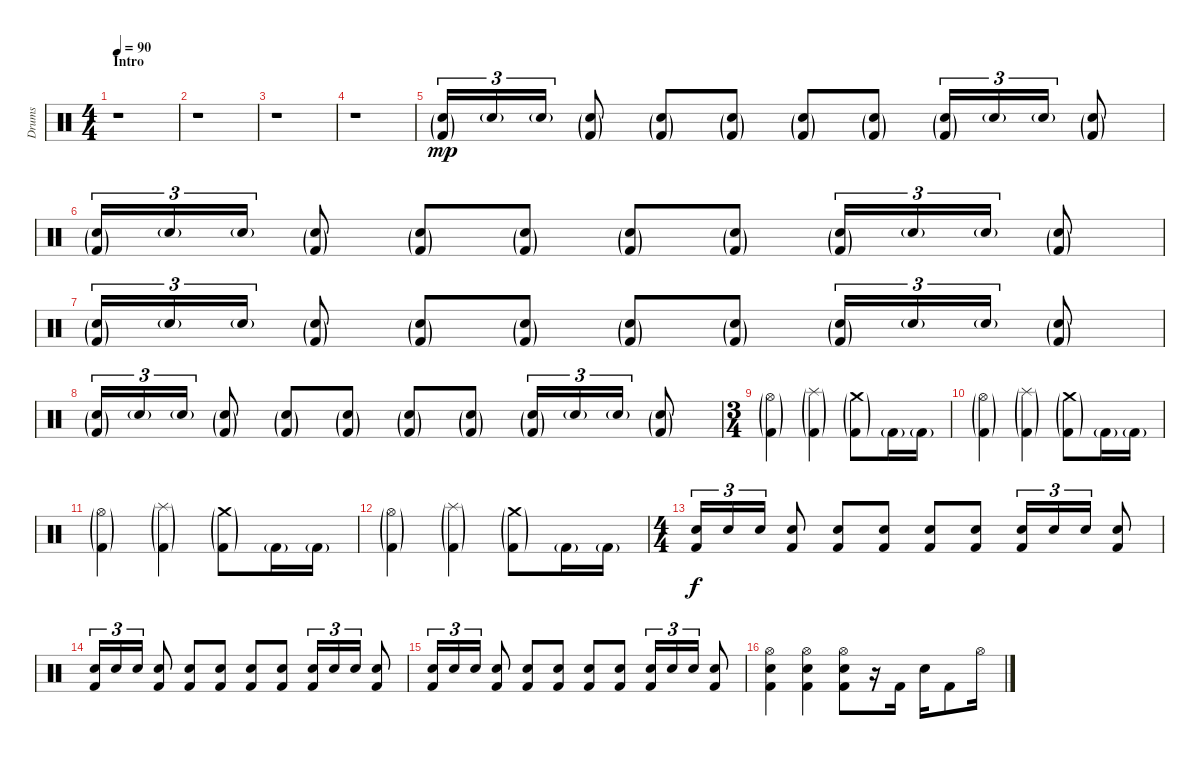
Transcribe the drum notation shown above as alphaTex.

\track ("Drums" "Drums") {instrument percussion}
\staff {score}
\articulation defaults
\ts (4 4)
\section ("" "Intro")
\tempo 90
\clef neutral
\ks c
r.1{dy mp} |
r.1 |
r.1 |
r.1 |
("Snare (hit) 2"{g} "Kick (hit) 2"{g}).16{tu (3 2)} "Snare (hit) 2"{g}.16{tu (3 2)} "Snare (hit) 2"{g}.16{tu (3 2)} ("Snare (hit) 2"{g} "Kick (hit) 2"{g}).8 ("Snare (hit) 2"{g} "Kick (hit) 2"{g}).8 ("Snare (hit) 2"{g} "Kick (hit) 2"{g}).8 ("Snare (hit) 2"{g} "Kick (hit) 2"{g}).8 ("Snare (hit) 2"{g} "Kick (hit) 2"{g}).8 ("Snare (hit) 2"{g} "Kick (hit) 2"{g}).16{tu (3 2)} "Snare (hit) 2"{g}.16{tu (3 2)} "Snare (hit) 2"{g}.16{tu (3 2)} ("Snare (hit) 2"{g} "Kick (hit) 2"{g}).8 |
("Snare (hit) 2"{g} "Kick (hit) 2"{g}).16{tu (3 2)} "Snare (hit) 2"{g}.16{tu (3 2)} "Snare (hit) 2"{g}.16{tu (3 2)} ("Snare (hit) 2"{g} "Kick (hit) 2"{g}).8 ("Snare (hit) 2"{g} "Kick (hit) 2"{g}).8 ("Snare (hit) 2"{g} "Kick (hit) 2"{g}).8 ("Snare (hit) 2"{g} "Kick (hit) 2"{g}).8 ("Snare (hit) 2"{g} "Kick (hit) 2"{g}).8 ("Snare (hit) 2"{g} "Kick (hit) 2"{g}).16{tu (3 2)} "Snare (hit) 2"{g}.16{tu (3 2)} "Snare (hit) 2"{g}.16{tu (3 2)} ("Snare (hit) 2"{g} "Kick (hit) 2"{g}).8 |
("Snare (hit) 2"{g} "Kick (hit) 2"{g}).16{tu (3 2)} "Snare (hit) 2"{g}.16{tu (3 2)} "Snare (hit) 2"{g}.16{tu (3 2)} ("Snare (hit) 2"{g} "Kick (hit) 2"{g}).8 ("Snare (hit) 2"{g} "Kick (hit) 2"{g}).8 ("Snare (hit) 2"{g} "Kick (hit) 2"{g}).8 ("Snare (hit) 2"{g} "Kick (hit) 2"{g}).8 ("Snare (hit) 2"{g} "Kick (hit) 2"{g}).8 ("Snare (hit) 2"{g} "Kick (hit) 2"{g}).16{tu (3 2)} "Snare (hit) 2"{g}.16{tu (3 2)} "Snare (hit) 2"{g}.16{tu (3 2)} ("Snare (hit) 2"{g} "Kick (hit) 2"{g}).8 |
("Snare (hit) 2"{g} "Kick (hit) 2"{g}).16{tu (3 2)} "Snare (hit) 2"{g}.16{tu (3 2)} "Snare (hit) 2"{g}.16{tu (3 2)} ("Snare (hit) 2"{g} "Kick (hit) 2"{g}).8 ("Snare (hit) 2"{g} "Kick (hit) 2"{g}).8 ("Snare (hit) 2"{g} "Kick (hit) 2"{g}).8 ("Snare (hit) 2"{g} "Kick (hit) 2"{g}).8 ("Snare (hit) 2"{g} "Kick (hit) 2"{g}).8 ("Snare (hit) 2"{g} "Kick (hit) 2"{g}).16{tu (3 2)} "Snare (hit) 2"{g}.16{tu (3 2)} "Snare (hit) 2"{g}.16{tu (3 2)} ("Snare (hit) 2"{g} "Kick (hit) 2"{g}).8 |
\ts (3 4)
("Hi-Hat (open)"{g} "Kick (hit) 2"{g}).4 ("Splash (hit)"{g} "Kick (hit) 2"{g}).4 ("Crash medium (hit)"{g} "Kick (hit) 2"{g}).8 "Kick (hit) 2"{g}.16 "Kick (hit) 2"{g}.16 |
("Hi-Hat (open)"{g} "Kick (hit) 2"{g}).4 ("Splash (hit)"{g} "Kick (hit) 2"{g}).4 ("Crash medium (hit)"{g} "Kick (hit) 2"{g}).8 "Kick (hit) 2"{g}.16 "Kick (hit) 2"{g}.16 |
("Hi-Hat (open)"{g} "Kick (hit) 2"{g}).4 ("Splash (hit)"{g} "Kick (hit) 2"{g}).4 ("Crash medium (hit)"{g} "Kick (hit) 2"{g}).8 "Kick (hit) 2"{g}.16 "Kick (hit) 2"{g}.16 |
("Hi-Hat (open)"{g} "Kick (hit) 2"{g}).4 ("Splash (hit)"{g} "Kick (hit) 2"{g}).4 ("Crash medium (hit)"{g} "Kick (hit) 2"{g}).8 "Kick (hit) 2"{g}.16 "Kick (hit) 2"{g}.16 |
\ts (4 4)
("Snare (hit) 2" "Kick (hit) 2").16{tu (3 2) dy f} "Snare (hit) 2".16{tu (3 2)} "Snare (hit) 2".16{tu (3 2)} ("Snare (hit) 2" "Kick (hit) 2").8 ("Snare (hit) 2" "Kick (hit) 2").8 ("Snare (hit) 2" "Kick (hit) 2").8 ("Snare (hit) 2" "Kick (hit) 2").8 ("Snare (hit) 2" "Kick (hit) 2").8 ("Snare (hit) 2" "Kick (hit) 2").16{tu (3 2)} "Snare (hit) 2".16{tu (3 2)} "Snare (hit) 2".16{tu (3 2)} ("Snare (hit) 2" "Kick (hit) 2").8 |
("Snare (hit) 2" "Kick (hit) 2").16{tu (3 2)} "Snare (hit) 2".16{tu (3 2)} "Snare (hit) 2".16{tu (3 2)} ("Snare (hit) 2" "Kick (hit) 2").8 ("Snare (hit) 2" "Kick (hit) 2").8 ("Snare (hit) 2" "Kick (hit) 2").8 ("Snare (hit) 2" "Kick (hit) 2").8 ("Snare (hit) 2" "Kick (hit) 2").8 ("Snare (hit) 2" "Kick (hit) 2").16{tu (3 2)} "Snare (hit) 2".16{tu (3 2)} "Snare (hit) 2".16{tu (3 2)} ("Snare (hit) 2" "Kick (hit) 2").8 |
("Snare (hit) 2" "Kick (hit) 2").16{tu (3 2)} "Snare (hit) 2".16{tu (3 2)} "Snare (hit) 2".16{tu (3 2)} ("Snare (hit) 2" "Kick (hit) 2").8 ("Snare (hit) 2" "Kick (hit) 2").8 ("Snare (hit) 2" "Kick (hit) 2").8 ("Snare (hit) 2" "Kick (hit) 2").8 ("Snare (hit) 2" "Kick (hit) 2").8 ("Snare (hit) 2" "Kick (hit) 2").16{tu (3 2)} "Snare (hit) 2".16{tu (3 2)} "Snare (hit) 2".16{tu (3 2)} ("Snare (hit) 2" "Kick (hit) 2").8 |
("Hi-Hat (open)" "Snare (hit) 2" "Kick (hit) 2").4 ("Hi-Hat (open)" "Snare (hit) 2" "Kick (hit) 2").4 ("Hi-Hat (open)" "Snare (hit) 2" "Kick (hit) 2").8 r.16 "Kick (hit) 2".16 "Snare (hit) 2".16 "Kick (hit) 2".8 "Hi-Hat (open)".16
